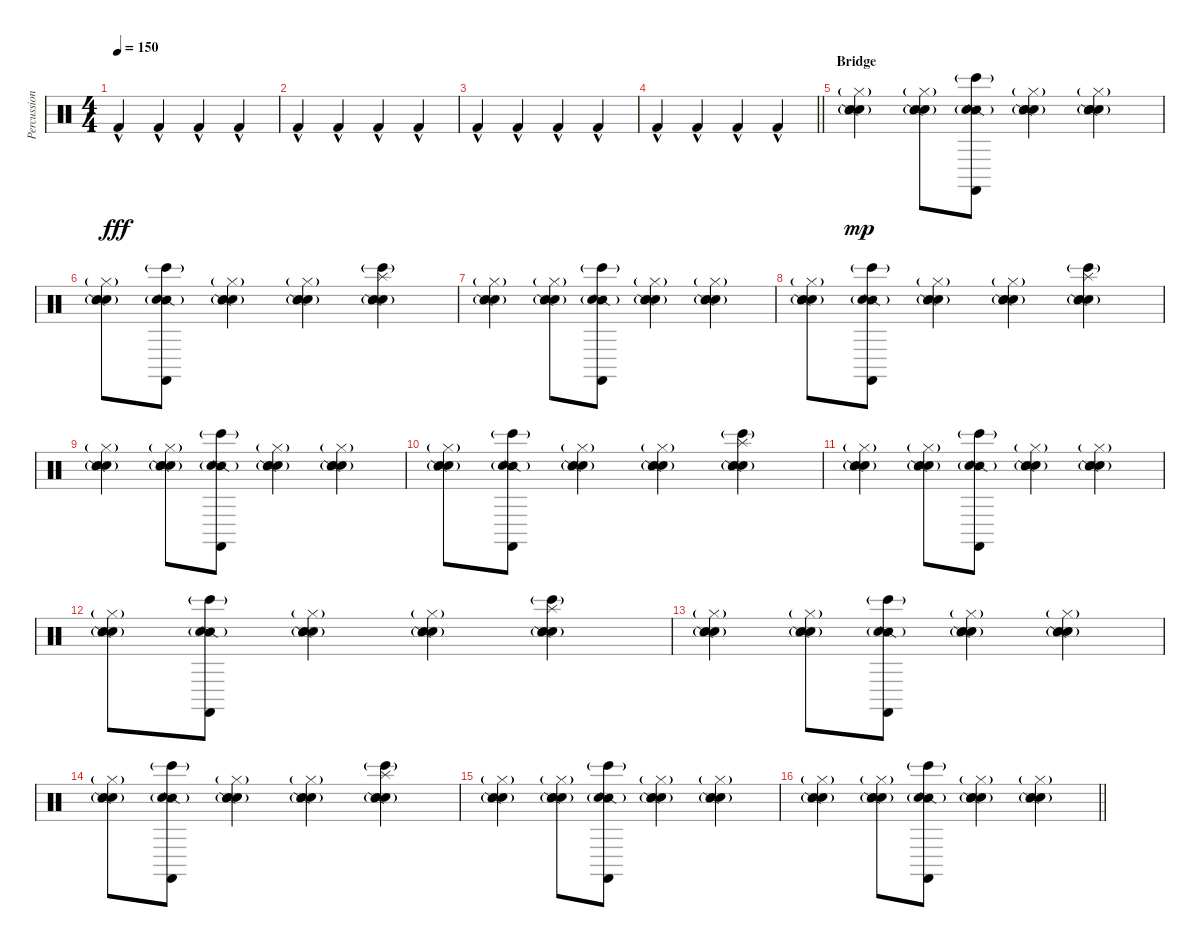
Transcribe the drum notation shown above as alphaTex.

\track ("Percussion" "Percussion") {instrument percussion}
\staff {score}
\articulation defaults
\ts (4 4)
\tempo 150
\clef neutral
\ks c "Kick (hit) 2"{hac}.4{dy fff} "Kick (hit) 2"{hac}.4 "Kick (hit) 2"{hac}.4 "Kick (hit) 2"{hac}.4
|
"Kick (hit) 2"{hac}.4 "Kick (hit) 2"{hac}.4 "Kick (hit) 2"{hac}.4 "Kick (hit) 2"{hac}.4 |
"Kick (hit) 2"{hac}.4 "Kick (hit) 2"{hac}.4 "Kick (hit) 2"{hac}.4 "Kick (hit) 2"{hac}.4 |
\barLineRight lightlight "Kick (hit) 2"{hac}.4 "Kick (hit) 2"{hac}.4 "Kick (hit) 2"{hac}.4 "Kick (hit) 2"{hac}.4
|
\section ("" "Bridge")
("Hand Clap (hit)" "Snare (side stick) 2" "Snare (hit) 2"{g} "Hi-Hat (closed)"{g}).4{dy mp volume 8} ("Hand Clap (hit)" "Snare (side stick) 2" "Snare (hit) 2"{g} "Hi-Hat (closed)"{g}).8 ("Castanets (hit)" "Snare (side stick) 2" "Snare (hit) 2"{g} "Bongo High (hit)"{g}).8 ("Hand Clap (hit)" "Snare (side stick) 2" "Snare (hit) 2"{g} "Hi-Hat (closed)"{g}).4 ("Hand Clap (hit)" "Snare (side stick) 2" "Snare (hit) 2"{g} "Hi-Hat (closed)"{g}).4 |
("Hand Clap (hit)" "Snare (side stick) 2" "Snare (hit) 2"{g} "Hi-Hat (closed)"{g}).8 ("Castanets (hit)" "Snare (side stick) 2" "Snare (hit) 2"{g} "Bongo High (hit)"{g}).8 ("Hand Clap (hit)" "Snare (side stick) 2" "Snare (hit) 2"{g} "Hi-Hat (closed)"{g}).4 ("Hand Clap (hit)" "Snare (side stick) 2" "Snare (hit) 2"{g} "Hi-Hat (closed)"{g}).4 ("Splash (hit)" "Hand Clap (hit)" "Snare (side stick) 2" "Snare (hit) 2"{g} "Bongo High (hit)"{g}).4 |
("Hand Clap (hit)" "Snare (side stick) 2" "Snare (hit) 2"{g} "Hi-Hat (closed)"{g}).4 ("Hand Clap (hit)" "Snare (side stick) 2" "Snare (hit) 2"{g} "Hi-Hat (closed)"{g}).8 ("Castanets (hit)" "Snare (side stick) 2" "Snare (hit) 2"{g} "Bongo High (hit)"{g}).8 ("Hand Clap (hit)" "Snare (side stick) 2" "Snare (hit) 2"{g} "Hi-Hat (closed)"{g}).4 ("Hand Clap (hit)" "Snare (side stick) 2" "Snare (hit) 2"{g} "Hi-Hat (closed)"{g}).4 |
("Hand Clap (hit)" "Snare (side stick) 2" "Snare (hit) 2"{g} "Hi-Hat (closed)"{g}).8 ("Castanets (hit)" "Snare (side stick) 2" "Snare (hit) 2"{g} "Bongo High (hit)"{g}).8 ("Hand Clap (hit)" "Snare (side stick) 2" "Snare (hit) 2"{g} "Hi-Hat (closed)"{g}).4 ("Hand Clap (hit)" "Snare (side stick) 2" "Snare (hit) 2"{g} "Hi-Hat (closed)"{g}).4 ("Splash (hit)" "Hand Clap (hit)" "Snare (side stick) 2" "Snare (hit) 2"{g} "Bongo High (hit)"{g}).4 |
("Hand Clap (hit)" "Snare (side stick) 2" "Snare (hit) 2"{g} "Hi-Hat (closed)"{g}).4 ("Hand Clap (hit)" "Snare (side stick) 2" "Snare (hit) 2"{g} "Hi-Hat (closed)"{g}).8 ("Castanets (hit)" "Snare (side stick) 2" "Snare (hit) 2"{g} "Bongo High (hit)"{g}).8 ("Hand Clap (hit)" "Snare (side stick) 2" "Snare (hit) 2"{g} "Hi-Hat (closed)"{g}).4 ("Hand Clap (hit)" "Snare (side stick) 2" "Snare (hit) 2"{g} "Hi-Hat (closed)"{g}).4 |
("Hand Clap (hit)" "Snare (side stick) 2" "Snare (hit) 2"{g} "Hi-Hat (closed)"{g}).8 ("Castanets (hit)" "Snare (side stick) 2" "Snare (hit) 2"{g} "Bongo High (hit)"{g}).8 ("Hand Clap (hit)" "Snare (side stick) 2" "Snare (hit) 2"{g} "Hi-Hat (closed)"{g}).4 ("Hand Clap (hit)" "Snare (side stick) 2" "Snare (hit) 2"{g} "Hi-Hat (closed)"{g}).4 ("Splash (hit)" "Hand Clap (hit)" "Snare (side stick) 2" "Snare (hit) 2"{g} "Bongo High (hit)"{g}).4 |
("Hand Clap (hit)" "Snare (side stick) 2" "Snare (hit) 2"{g} "Hi-Hat (closed)"{g}).4 ("Hand Clap (hit)" "Snare (side stick) 2" "Snare (hit) 2"{g} "Hi-Hat (closed)"{g}).8 ("Castanets (hit)" "Snare (side stick) 2" "Snare (hit) 2"{g} "Bongo High (hit)"{g}).8 ("Hand Clap (hit)" "Snare (side stick) 2" "Snare (hit) 2"{g} "Hi-Hat (closed)"{g}).4 ("Hand Clap (hit)" "Snare (side stick) 2" "Snare (hit) 2"{g} "Hi-Hat (closed)"{g}).4 |
("Hand Clap (hit)" "Snare (side stick) 2" "Snare (hit) 2"{g} "Hi-Hat (closed)"{g}).8 ("Castanets (hit)" "Snare (side stick) 2" "Snare (hit) 2"{g} "Bongo High (hit)"{g}).8 ("Hand Clap (hit)" "Snare (side stick) 2" "Snare (hit) 2"{g} "Hi-Hat (closed)"{g}).4 ("Hand Clap (hit)" "Snare (side stick) 2" "Snare (hit) 2"{g} "Hi-Hat (closed)"{g}).4 ("Splash (hit)" "Hand Clap (hit)" "Snare (side stick) 2" "Snare (hit) 2"{g} "Bongo High (hit)"{g}).4 |
("Hand Clap (hit)" "Snare (side stick) 2" "Snare (hit) 2"{g} "Hi-Hat (closed)"{g}).4 ("Hand Clap (hit)" "Snare (side stick) 2" "Snare (hit) 2"{g} "Hi-Hat (closed)"{g}).8 ("Castanets (hit)" "Snare (side stick) 2" "Snare (hit) 2"{g} "Bongo High (hit)"{g}).8 ("Hand Clap (hit)" "Snare (side stick) 2" "Snare (hit) 2"{g} "Hi-Hat (closed)"{g}).4 ("Hand Clap (hit)" "Snare (side stick) 2" "Snare (hit) 2"{g} "Hi-Hat (closed)"{g}).4 |
("Hand Clap (hit)" "Snare (side stick) 2" "Snare (hit) 2"{g} "Hi-Hat (closed)"{g}).8 ("Castanets (hit)" "Snare (side stick) 2" "Snare (hit) 2"{g} "Bongo High (hit)"{g}).8 ("Hand Clap (hit)" "Snare (side stick) 2" "Snare (hit) 2"{g} "Hi-Hat (closed)"{g}).4 ("Hand Clap (hit)" "Snare (side stick) 2" "Snare (hit) 2"{g} "Hi-Hat (closed)"{g}).4 ("Splash (hit)" "Hand Clap (hit)" "Snare (side stick) 2" "Snare (hit) 2"{g} "Bongo High (hit)"{g}).4 |
("Hand Clap (hit)" "Snare (side stick) 2" "Snare (hit) 2"{g} "Hi-Hat (closed)"{g}).4 ("Hand Clap (hit)" "Snare (side stick) 2" "Snare (hit) 2"{g} "Hi-Hat (closed)"{g}).8 ("Castanets (hit)" "Snare (side stick) 2" "Snare (hit) 2"{g} "Bongo High (hit)"{g}).8 ("Hand Clap (hit)" "Snare (side stick) 2" "Snare (hit) 2"{g} "Hi-Hat (closed)"{g}).4 ("Hand Clap (hit)" "Snare (side stick) 2" "Snare (hit) 2"{g} "Hi-Hat (closed)"{g}).4 |
\barLineRight lightlight
("Hand Clap (hit)" "Snare (side stick) 2" "Snare (hit) 2"{g} "Hi-Hat (closed)"{g}).4 ("Hand Clap (hit)" "Snare (side stick) 2" "Snare (hit) 2"{g} "Hi-Hat (closed)"{g}).8 ("Castanets (hit)" "Snare (side stick) 2" "Snare (hit) 2"{g} "Bongo High (hit)"{g}).8 ("Hand Clap (hit)" "Snare (side stick) 2" "Snare (hit) 2"{g} "Hi-Hat (closed)"{g}).4 ("Hand Clap (hit)" "Snare (side stick) 2" "Snare (hit) 2"{g} "Hi-Hat (closed)"{g}).4
